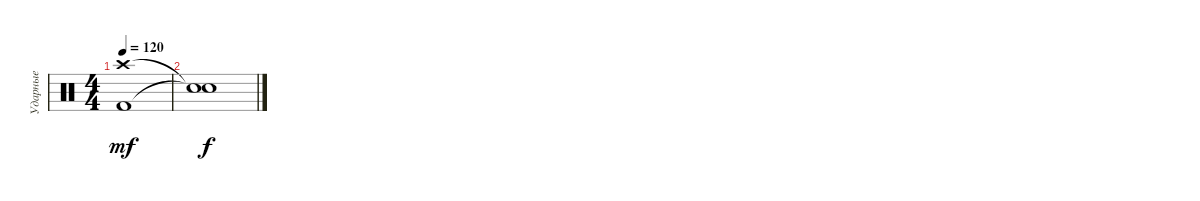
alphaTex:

\track ("Ударные" "Ударные") {instrument percussion}
\staff {score}
\articulation defaults
\ts (4 4)
\tempo 120
\clef neutral
\ks c
("Crash high (hit)" "Kick (hit) 2").1{dy mf} |
("Snare (hit)"{t} "Snare (hit)"{t}).1{dy f}
